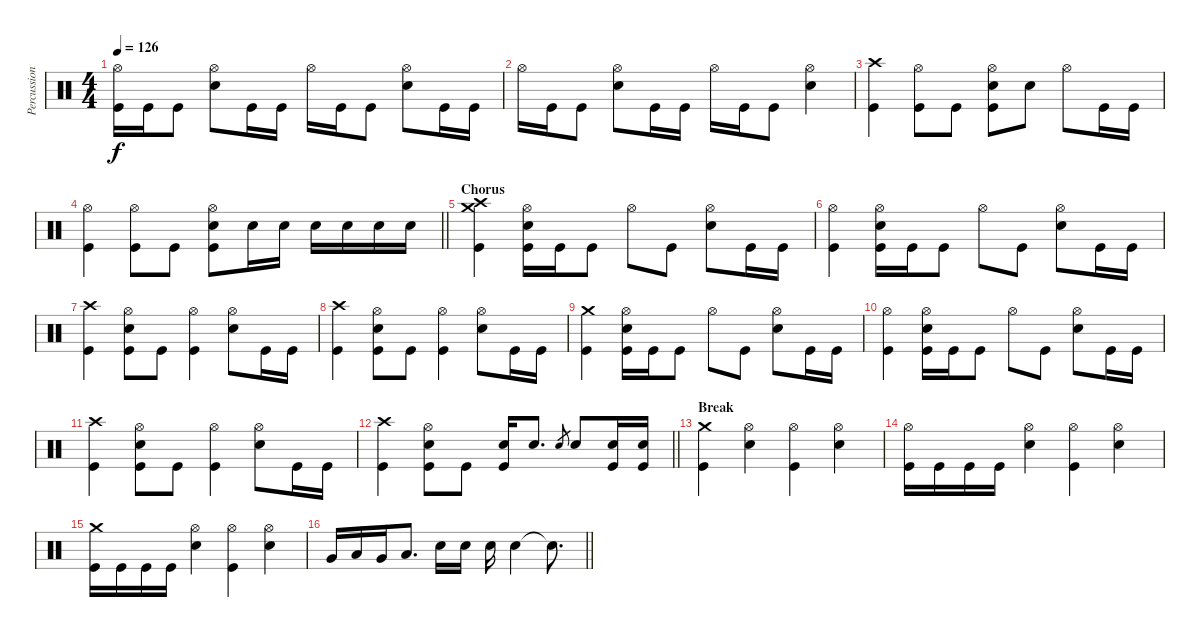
\track ("Percussion" "Percussion") {instrument percussion}
\staff {score}
\articulation defaults
\ts (4 4)
\tempo 126
\clef neutral
\ks c
("Hi-Hat (open)" "Kick (hit)").16{dy f} "Kick (hit)".16 "Kick (hit)".8 ("Hi-Hat (open)" "Electric Snare (hit)").8 "Kick (hit)".16 "Kick (hit)".16 "Hi-Hat (open)".16 "Kick (hit)".16 "Kick (hit)".8 ("Hi-Hat (open)" "Electric Snare (hit)").8 "Kick (hit)".16 "Kick (hit)".16 |
"Hi-Hat (open)".16 "Kick (hit)".16 "Kick (hit)".8 ("Hi-Hat (open)" "Electric Snare (hit)").8 "Kick (hit)".16 "Kick (hit)".16 "Hi-Hat (open)".16 "Kick (hit)".16 "Kick (hit)".8 ("Hi-Hat (open)" "Electric Snare (hit)").4 |
("Crash high (hit)" "Kick (hit)").4 ("Hi-Hat (open)" "Kick (hit)").8 "Kick (hit)".8 ("Hi-Hat (open)" "Electric Snare (hit)" "Kick (hit)").8 "Electric Snare (hit)".8 "Hi-Hat (open)".8 "Kick (hit)".16 "Kick (hit)".16 |
\barLineRight lightlight
("Hi-Hat (open)" "Kick (hit)").4 ("Hi-Hat (open)" "Kick (hit)").8 "Kick (hit)".8 ("Hi-Hat (open)" "Electric Snare (hit)" "Kick (hit)").8 "Electric Snare (hit)".16 "Electric Snare (hit)".16 "Electric Snare (hit)".16 "Electric Snare (hit)".16 "Electric Snare (hit)".16 "Electric Snare (hit)".16 |
\section ("" "Chorus")
("Crash high (hit)" "Crash medium (hit)" "Kick (hit)").4 ("Hi-Hat (open)" "Electric Snare (hit)" "Kick (hit)").16 "Kick (hit)".16 "Kick (hit)".8 "Hi-Hat (open)".8 "Kick (hit)".8 ("Hi-Hat (open)" "Electric Snare (hit)").8 "Kick (hit)".16 "Kick (hit)".16 |
("Hi-Hat (open)" "Kick (hit)").4 ("Hi-Hat (open)" "Electric Snare (hit)" "Kick (hit)").16 "Kick (hit)".16 "Kick (hit)".8 "Hi-Hat (open)".8 "Kick (hit)".8 ("Hi-Hat (open)" "Electric Snare (hit)").8 "Kick (hit)".16 "Kick (hit)".16 |
("Crash high (hit)" "Kick (hit)").4 ("Hi-Hat (open)" "Electric Snare (hit)" "Kick (hit)").8 "Kick (hit)".8 ("Hi-Hat (open)" "Kick (hit)").4 ("Hi-Hat (open)" "Electric Snare (hit)").8 "Kick (hit)".16 "Kick (hit)".16 |
("Crash high (hit)" "Kick (hit)").4 ("Hi-Hat (open)" "Electric Snare (hit)" "Kick (hit)").8 "Kick (hit)".8 ("Hi-Hat (open)" "Kick (hit)").4 ("Hi-Hat (open)" "Electric Snare (hit)").8 "Kick (hit)".16 "Kick (hit)".16 |
("Crash medium (hit)" "Kick (hit)").4 ("Hi-Hat (open)" "Electric Snare (hit)" "Kick (hit)").16 "Kick (hit)".16 "Kick (hit)".8 "Hi-Hat (open)".8 "Kick (hit)".8 ("Hi-Hat (open)" "Electric Snare (hit)").8 "Kick (hit)".16 "Kick (hit)".16 |
("Hi-Hat (open)" "Kick (hit)").4 ("Hi-Hat (open)" "Electric Snare (hit)" "Kick (hit)").16 "Kick (hit)".16 "Kick (hit)".8 "Hi-Hat (open)".8 "Kick (hit)".8 ("Hi-Hat (open)" "Electric Snare (hit)").8 "Kick (hit)".16 "Kick (hit)".16 |
("Crash high (hit)" "Kick (hit)").4 ("Hi-Hat (open)" "Electric Snare (hit)" "Kick (hit)").8 "Kick (hit)".8 ("Hi-Hat (open)" "Kick (hit)").4 ("Hi-Hat (open)" "Electric Snare (hit)").8 "Kick (hit)".16 "Kick (hit)".16 |
\barLineRight lightlight
("Crash high (hit)" "Kick (hit)").4 ("Hi-Hat (open)" "Electric Snare (hit)" "Kick (hit)").8 "Kick (hit)".8 ("Electric Snare (hit)" "Kick (hit)").16 "Electric Snare (hit)".8{d} "Electric Snare (hit)".8{gr} "Electric Snare (hit)".8 ("Electric Snare (hit)" "Kick (hit)").16 ("Electric Snare (hit)" "Kick (hit)").16 |
\section ("" "Break")
("Crash medium (hit)" "Kick (hit)").4 ("Hi-Hat (open)" "Electric Snare (hit)").4 ("Hi-Hat (open)" "Kick (hit)").4 ("Hi-Hat (open)" "Electric Snare (hit)").4 |
("Hi-Hat (open)" "Kick (hit)").16 "Kick (hit)".16 "Kick (hit)".16 "Kick (hit)".16 ("Hi-Hat (open)" "Electric Snare (hit)").4 ("Hi-Hat (open)" "Kick (hit)").4 ("Hi-Hat (open)" "Electric Snare (hit)").4 |
("Crash medium (hit)" "Kick (hit)").16 "Kick (hit)".16 "Kick (hit)".16 "Kick (hit)".16 ("Hi-Hat (open)" "Electric Snare (hit)").4 ("Hi-Hat (open)" "Kick (hit)").4 ("Hi-Hat (open)" "Electric Snare (hit)").4 |
\barLineRight lightlight "Very Low Tom (hit)".16 "Low Tom (hit)".16 "Very Low Tom (hit)".16 "Low Floor Tom (hit)".8{d} "Electric Snare (hit)".16 "Electric Snare (hit)".16 "Electric Snare (hit)".16 "Electric Snare (hit)".4 "Snare (hit)"{t}.8{d}
